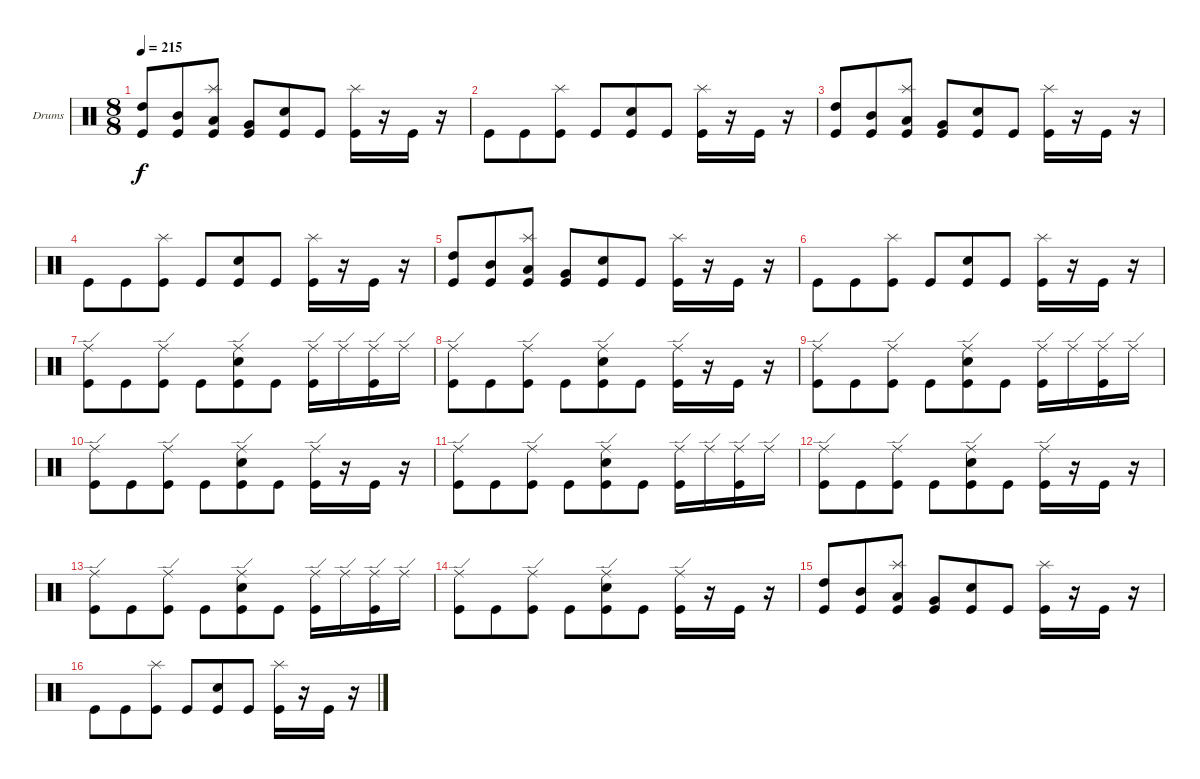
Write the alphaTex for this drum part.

\bracketExtendMode groupsimilarinstruments
\firstSystemTrackNameOrientation horizontal
\otherSystemsTrackNameOrientation horizontal
\track ("Dave McClain" "Drums") {instrument percussion}
\staff {score}
\articulation defaults
\ts (8 8)
\tempo 215
\clef neutral
\ks c
("High Tom (hit)" "Kick (hit)").8{dy f} ("Mid Tom (hit)" "Kick (hit)").8 ("Splash (hit)" "Low Tom (hit)" "Kick (hit)").8 ("Very Low Tom (hit)" "Kick (hit)").8 ("Snare (hit) 2" "Kick (hit)").8 "Kick (hit)".8 ("Splash (hit)" "Kick (hit)").16 r.16 "Kick (hit)".16 r.16 |
"Kick (hit)".8 "Kick (hit)".8 ("Splash (hit)" "Kick (hit)").8 "Kick (hit)".8 ("Snare (hit) 2" "Kick (hit)").8 "Kick (hit)".8 ("Splash (hit)" "Kick (hit)").16 r.16 "Kick (hit)".16 r.16 |
("High Tom (hit)" "Kick (hit)").8 ("Mid Tom (hit)" "Kick (hit)").8 ("Splash (hit)" "Low Tom (hit)" "Kick (hit)").8 ("Very Low Tom (hit)" "Kick (hit)").8 ("Snare (hit) 2" "Kick (hit)").8 "Kick (hit)".8 ("Splash (hit)" "Kick (hit)").16 r.16 "Kick (hit)".16 r.16 |
"Kick (hit)".8 "Kick (hit)".8 ("Splash (hit)" "Kick (hit)").8 "Kick (hit)".8 ("Snare (hit) 2" "Kick (hit)").8 "Kick (hit)".8 ("Splash (hit)" "Kick (hit)").16 r.16 "Kick (hit)".16 r.16 |
("High Tom (hit)" "Kick (hit)").8 ("Mid Tom (hit)" "Kick (hit)").8 ("Splash (hit)" "Low Tom (hit)" "Kick (hit)").8 ("Very Low Tom (hit)" "Kick (hit)").8 ("Snare (hit) 2" "Kick (hit)").8 "Kick (hit)".8 ("Splash (hit)" "Kick (hit)").16 r.16 "Kick (hit)".16 r.16 |
"Kick (hit)".8 "Kick (hit)".8 ("Splash (hit)" "Kick (hit)").8 "Kick (hit)".8 ("Snare (hit) 2" "Kick (hit)").8 "Kick (hit)".8 ("Splash (hit)" "Kick (hit)").16 r.16 "Kick (hit)".16 r.16 |
("Ride (edge)" "Kick (hit)").8 "Kick (hit)".8 ("Ride (edge)" "Kick (hit)").8 "Kick (hit)".8 ("Ride (edge)" "Snare (hit) 2" "Kick (hit)").8 "Kick (hit)".8 ("Ride (edge)" "Kick (hit)").16 "Ride (edge)".16 ("Ride (edge)" "Kick (hit)").16 "Ride (edge)".16 |
("Ride (edge)" "Kick (hit)").8 "Kick (hit)".8 ("Ride (edge)" "Kick (hit)").8 "Kick (hit)".8 ("Ride (edge)" "Snare (hit) 2" "Kick (hit)").8 "Kick (hit)".8 ("Ride (edge)" "Kick (hit)").16 r.16 "Kick (hit)".16 r.16 |
("Ride (edge)" "Kick (hit)").8 "Kick (hit)".8 ("Ride (edge)" "Kick (hit)").8 "Kick (hit)".8 ("Ride (edge)" "Snare (hit) 2" "Kick (hit)").8 "Kick (hit)".8 ("Ride (edge)" "Kick (hit)").16 "Ride (edge)".16 ("Ride (edge)" "Kick (hit)").16 "Ride (edge)".16 |
("Ride (edge)" "Kick (hit)").8 "Kick (hit)".8 ("Ride (edge)" "Kick (hit)").8 "Kick (hit)".8 ("Ride (edge)" "Snare (hit) 2" "Kick (hit)").8 "Kick (hit)".8 ("Ride (edge)" "Kick (hit)").16 r.16 "Kick (hit)".16 r.16 |
("Ride (edge)" "Kick (hit)").8 "Kick (hit)".8 ("Ride (edge)" "Kick (hit)").8 "Kick (hit)".8 ("Ride (edge)" "Snare (hit) 2" "Kick (hit)").8 "Kick (hit)".8 ("Ride (edge)" "Kick (hit)").16 "Ride (edge)".16 ("Ride (edge)" "Kick (hit)").16 "Ride (edge)".16 |
("Ride (edge)" "Kick (hit)").8 "Kick (hit)".8 ("Ride (edge)" "Kick (hit)").8 "Kick (hit)".8 ("Ride (edge)" "Snare (hit) 2" "Kick (hit)").8 "Kick (hit)".8 ("Ride (edge)" "Kick (hit)").16 r.16 "Kick (hit)".16 r.16 |
("Ride (edge)" "Kick (hit)").8 "Kick (hit)".8 ("Ride (edge)" "Kick (hit)").8 "Kick (hit)".8 ("Ride (edge)" "Snare (hit) 2" "Kick (hit)").8 "Kick (hit)".8 ("Ride (edge)" "Kick (hit)").16 "Ride (edge)".16 ("Ride (edge)" "Kick (hit)").16 "Ride (edge)".16 |
("Ride (edge)" "Kick (hit)").8 "Kick (hit)".8 ("Ride (edge)" "Kick (hit)").8 "Kick (hit)".8 ("Ride (edge)" "Snare (hit) 2" "Kick (hit)").8 "Kick (hit)".8 ("Ride (edge)" "Kick (hit)").16 r.16 "Kick (hit)".16 r.16 |
("High Tom (hit)" "Kick (hit)").8 ("Mid Tom (hit)" "Kick (hit)").8 ("Splash (hit)" "Low Tom (hit)" "Kick (hit)").8 ("Very Low Tom (hit)" "Kick (hit)").8 ("Snare (hit) 2" "Kick (hit)").8 "Kick (hit)".8 ("Splash (hit)" "Kick (hit)").16 r.16 "Kick (hit)".16 r.16 |
"Kick (hit)".8 "Kick (hit)".8 ("Splash (hit)" "Kick (hit)").8 "Kick (hit)".8 ("Snare (hit) 2" "Kick (hit)").8 "Kick (hit)".8 ("Splash (hit)" "Kick (hit)").16 r.16 "Kick (hit)".16 r.16
